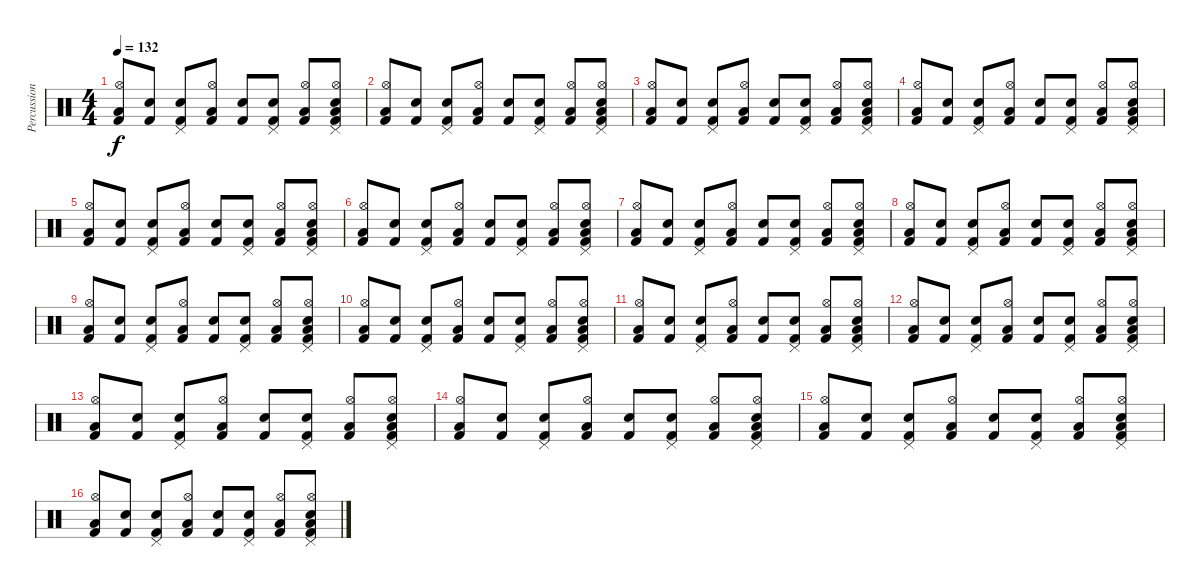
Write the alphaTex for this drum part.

\track ("Percussion" "Percussion") {instrument percussion}
\staff {score}
\articulation defaults
\ts (4 4)
\tempo 132
\clef neutral
\ks c
("Kick (hit) 2" "Hi-Hat (open)" "Low Floor Tom (hit)").8{dy f} ("Kick (hit) 2" "Snare (hit) 2").8 ("Kick (hit) 2" "Pedal Hi-Hat (hit)" "Snare (hit) 2").8 ("Kick (hit) 2" "Hi-Hat (open)" "Low Floor Tom (hit)").8 ("Kick (hit) 2" "Snare (hit) 2").8 ("Kick (hit) 2" "Pedal Hi-Hat (hit)" "Snare (hit) 2").8 ("Kick (hit) 2" "Hi-Hat (open)" "Low Floor Tom (hit)").8 ("Kick (hit) 2" "Pedal Hi-Hat (hit)" "Hi-Hat (open)" "Snare (hit) 2" "Low Floor Tom (hit)").8 |
("Kick (hit) 2" "Hi-Hat (open)" "Low Floor Tom (hit)").8 ("Kick (hit) 2" "Snare (hit) 2").8 ("Kick (hit) 2" "Pedal Hi-Hat (hit)" "Snare (hit) 2").8 ("Kick (hit) 2" "Hi-Hat (open)" "Low Floor Tom (hit)").8 ("Kick (hit) 2" "Snare (hit) 2").8 ("Kick (hit) 2" "Pedal Hi-Hat (hit)" "Snare (hit) 2").8 ("Kick (hit) 2" "Hi-Hat (open)" "Low Floor Tom (hit)").8 ("Kick (hit) 2" "Pedal Hi-Hat (hit)" "Hi-Hat (open)" "Snare (hit) 2" "Low Floor Tom (hit)").8 |
("Kick (hit) 2" "Hi-Hat (open)" "Low Floor Tom (hit)").8 ("Kick (hit) 2" "Snare (hit) 2").8 ("Kick (hit) 2" "Pedal Hi-Hat (hit)" "Snare (hit) 2").8 ("Kick (hit) 2" "Hi-Hat (open)" "Low Floor Tom (hit)").8 ("Kick (hit) 2" "Snare (hit) 2").8 ("Kick (hit) 2" "Pedal Hi-Hat (hit)" "Snare (hit) 2").8 ("Kick (hit) 2" "Hi-Hat (open)" "Low Floor Tom (hit)").8 ("Kick (hit) 2" "Pedal Hi-Hat (hit)" "Hi-Hat (open)" "Snare (hit) 2" "Low Floor Tom (hit)").8 |
("Kick (hit) 2" "Hi-Hat (open)" "Low Floor Tom (hit)").8 ("Kick (hit) 2" "Snare (hit) 2").8 ("Kick (hit) 2" "Pedal Hi-Hat (hit)" "Snare (hit) 2").8 ("Kick (hit) 2" "Hi-Hat (open)" "Low Floor Tom (hit)").8 ("Kick (hit) 2" "Snare (hit) 2").8 ("Kick (hit) 2" "Pedal Hi-Hat (hit)" "Snare (hit) 2").8 ("Kick (hit) 2" "Hi-Hat (open)" "Low Floor Tom (hit)").8 ("Kick (hit) 2" "Pedal Hi-Hat (hit)" "Hi-Hat (open)" "Snare (hit) 2" "Low Floor Tom (hit)").8 |
("Kick (hit) 2" "Hi-Hat (open)" "Low Floor Tom (hit)").8 ("Kick (hit) 2" "Snare (hit) 2").8 ("Kick (hit) 2" "Pedal Hi-Hat (hit)" "Snare (hit) 2").8 ("Kick (hit) 2" "Hi-Hat (open)" "Low Floor Tom (hit)").8 ("Kick (hit) 2" "Snare (hit) 2").8 ("Kick (hit) 2" "Pedal Hi-Hat (hit)" "Snare (hit) 2").8 ("Kick (hit) 2" "Hi-Hat (open)" "Low Floor Tom (hit)").8 ("Kick (hit) 2" "Pedal Hi-Hat (hit)" "Hi-Hat (open)" "Snare (hit) 2" "Low Floor Tom (hit)").8 |
("Kick (hit) 2" "Hi-Hat (open)" "Low Floor Tom (hit)").8 ("Kick (hit) 2" "Snare (hit) 2").8 ("Kick (hit) 2" "Pedal Hi-Hat (hit)" "Snare (hit) 2").8 ("Kick (hit) 2" "Hi-Hat (open)" "Low Floor Tom (hit)").8 ("Kick (hit) 2" "Snare (hit) 2").8 ("Kick (hit) 2" "Pedal Hi-Hat (hit)" "Snare (hit) 2").8 ("Kick (hit) 2" "Hi-Hat (open)" "Low Floor Tom (hit)").8 ("Kick (hit) 2" "Pedal Hi-Hat (hit)" "Hi-Hat (open)" "Snare (hit) 2" "Low Floor Tom (hit)").8 |
("Kick (hit) 2" "Hi-Hat (open)" "Low Floor Tom (hit)").8 ("Kick (hit) 2" "Snare (hit) 2").8 ("Kick (hit) 2" "Pedal Hi-Hat (hit)" "Snare (hit) 2").8 ("Kick (hit) 2" "Hi-Hat (open)" "Low Floor Tom (hit)").8 ("Kick (hit) 2" "Snare (hit) 2").8 ("Kick (hit) 2" "Pedal Hi-Hat (hit)" "Snare (hit) 2").8 ("Kick (hit) 2" "Hi-Hat (open)" "Low Floor Tom (hit)").8 ("Kick (hit) 2" "Pedal Hi-Hat (hit)" "Hi-Hat (open)" "Snare (hit) 2" "Low Floor Tom (hit)").8 |
("Kick (hit) 2" "Hi-Hat (open)" "Low Floor Tom (hit)").8 ("Kick (hit) 2" "Snare (hit) 2").8 ("Kick (hit) 2" "Pedal Hi-Hat (hit)" "Snare (hit) 2").8 ("Kick (hit) 2" "Hi-Hat (open)" "Low Floor Tom (hit)").8 ("Kick (hit) 2" "Snare (hit) 2").8 ("Kick (hit) 2" "Pedal Hi-Hat (hit)" "Snare (hit) 2").8 ("Kick (hit) 2" "Hi-Hat (open)" "Low Floor Tom (hit)").8 ("Kick (hit) 2" "Pedal Hi-Hat (hit)" "Hi-Hat (open)" "Snare (hit) 2" "Low Floor Tom (hit)").8 |
("Kick (hit) 2" "Hi-Hat (open)" "Low Floor Tom (hit)").8 ("Kick (hit) 2" "Snare (hit) 2").8 ("Kick (hit) 2" "Pedal Hi-Hat (hit)" "Snare (hit) 2").8 ("Kick (hit) 2" "Hi-Hat (open)" "Low Floor Tom (hit)").8 ("Kick (hit) 2" "Snare (hit) 2").8 ("Kick (hit) 2" "Pedal Hi-Hat (hit)" "Snare (hit) 2").8 ("Kick (hit) 2" "Hi-Hat (open)" "Low Floor Tom (hit)").8 ("Kick (hit) 2" "Pedal Hi-Hat (hit)" "Hi-Hat (open)" "Snare (hit) 2" "Low Floor Tom (hit)").8 |
("Kick (hit) 2" "Hi-Hat (open)" "Low Floor Tom (hit)").8 ("Kick (hit) 2" "Snare (hit) 2").8 ("Kick (hit) 2" "Pedal Hi-Hat (hit)" "Snare (hit) 2").8 ("Kick (hit) 2" "Hi-Hat (open)" "Low Floor Tom (hit)").8 ("Kick (hit) 2" "Snare (hit) 2").8 ("Kick (hit) 2" "Pedal Hi-Hat (hit)" "Snare (hit) 2").8 ("Kick (hit) 2" "Hi-Hat (open)" "Low Floor Tom (hit)").8 ("Kick (hit) 2" "Pedal Hi-Hat (hit)" "Hi-Hat (open)" "Snare (hit) 2" "Low Floor Tom (hit)").8 |
("Kick (hit) 2" "Hi-Hat (open)" "Low Floor Tom (hit)").8 ("Kick (hit) 2" "Snare (hit) 2").8 ("Kick (hit) 2" "Pedal Hi-Hat (hit)" "Snare (hit) 2").8 ("Kick (hit) 2" "Hi-Hat (open)" "Low Floor Tom (hit)").8 ("Kick (hit) 2" "Snare (hit) 2").8 ("Kick (hit) 2" "Pedal Hi-Hat (hit)" "Snare (hit) 2").8 ("Kick (hit) 2" "Hi-Hat (open)" "Low Floor Tom (hit)").8 ("Kick (hit) 2" "Pedal Hi-Hat (hit)" "Hi-Hat (open)" "Snare (hit) 2" "Low Floor Tom (hit)").8 |
("Kick (hit) 2" "Hi-Hat (open)" "Low Floor Tom (hit)").8 ("Kick (hit) 2" "Snare (hit) 2").8 ("Kick (hit) 2" "Pedal Hi-Hat (hit)" "Snare (hit) 2").8 ("Kick (hit) 2" "Hi-Hat (open)" "Low Floor Tom (hit)").8 ("Kick (hit) 2" "Snare (hit) 2").8 ("Kick (hit) 2" "Pedal Hi-Hat (hit)" "Snare (hit) 2").8 ("Kick (hit) 2" "Hi-Hat (open)" "Low Floor Tom (hit)").8 ("Kick (hit) 2" "Pedal Hi-Hat (hit)" "Hi-Hat (open)" "Snare (hit) 2" "Low Floor Tom (hit)").8 |
("Kick (hit) 2" "Hi-Hat (open)" "Low Floor Tom (hit)").8 ("Kick (hit) 2" "Snare (hit) 2").8 ("Kick (hit) 2" "Pedal Hi-Hat (hit)" "Snare (hit) 2").8 ("Kick (hit) 2" "Hi-Hat (open)" "Low Floor Tom (hit)").8 ("Kick (hit) 2" "Snare (hit) 2").8 ("Kick (hit) 2" "Pedal Hi-Hat (hit)" "Snare (hit) 2").8 ("Kick (hit) 2" "Hi-Hat (open)" "Low Floor Tom (hit)").8 ("Kick (hit) 2" "Pedal Hi-Hat (hit)" "Hi-Hat (open)" "Snare (hit) 2" "Low Floor Tom (hit)").8 |
("Kick (hit) 2" "Hi-Hat (open)" "Low Floor Tom (hit)").8 ("Kick (hit) 2" "Snare (hit) 2").8 ("Kick (hit) 2" "Pedal Hi-Hat (hit)" "Snare (hit) 2").8 ("Kick (hit) 2" "Hi-Hat (open)" "Low Floor Tom (hit)").8 ("Kick (hit) 2" "Snare (hit) 2").8 ("Kick (hit) 2" "Pedal Hi-Hat (hit)" "Snare (hit) 2").8 ("Kick (hit) 2" "Hi-Hat (open)" "Low Floor Tom (hit)").8 ("Kick (hit) 2" "Pedal Hi-Hat (hit)" "Hi-Hat (open)" "Snare (hit) 2" "Low Floor Tom (hit)").8 |
("Kick (hit) 2" "Hi-Hat (open)" "Low Floor Tom (hit)").8 ("Kick (hit) 2" "Snare (hit) 2").8 ("Kick (hit) 2" "Pedal Hi-Hat (hit)" "Snare (hit) 2").8 ("Kick (hit) 2" "Hi-Hat (open)" "Low Floor Tom (hit)").8 ("Kick (hit) 2" "Snare (hit) 2").8 ("Kick (hit) 2" "Pedal Hi-Hat (hit)" "Snare (hit) 2").8 ("Kick (hit) 2" "Hi-Hat (open)" "Low Floor Tom (hit)").8 ("Kick (hit) 2" "Pedal Hi-Hat (hit)" "Hi-Hat (open)" "Snare (hit) 2" "Low Floor Tom (hit)").8 |
("Kick (hit) 2" "Hi-Hat (open)" "Low Floor Tom (hit)").8 ("Kick (hit) 2" "Snare (hit) 2").8 ("Kick (hit) 2" "Pedal Hi-Hat (hit)" "Snare (hit) 2").8 ("Kick (hit) 2" "Hi-Hat (open)" "Low Floor Tom (hit)").8 ("Kick (hit) 2" "Snare (hit) 2").8 ("Kick (hit) 2" "Pedal Hi-Hat (hit)" "Snare (hit) 2").8 ("Kick (hit) 2" "Hi-Hat (open)" "Low Floor Tom (hit)").8 ("Kick (hit) 2" "Pedal Hi-Hat (hit)" "Hi-Hat (open)" "Snare (hit) 2" "Low Floor Tom (hit)").8
